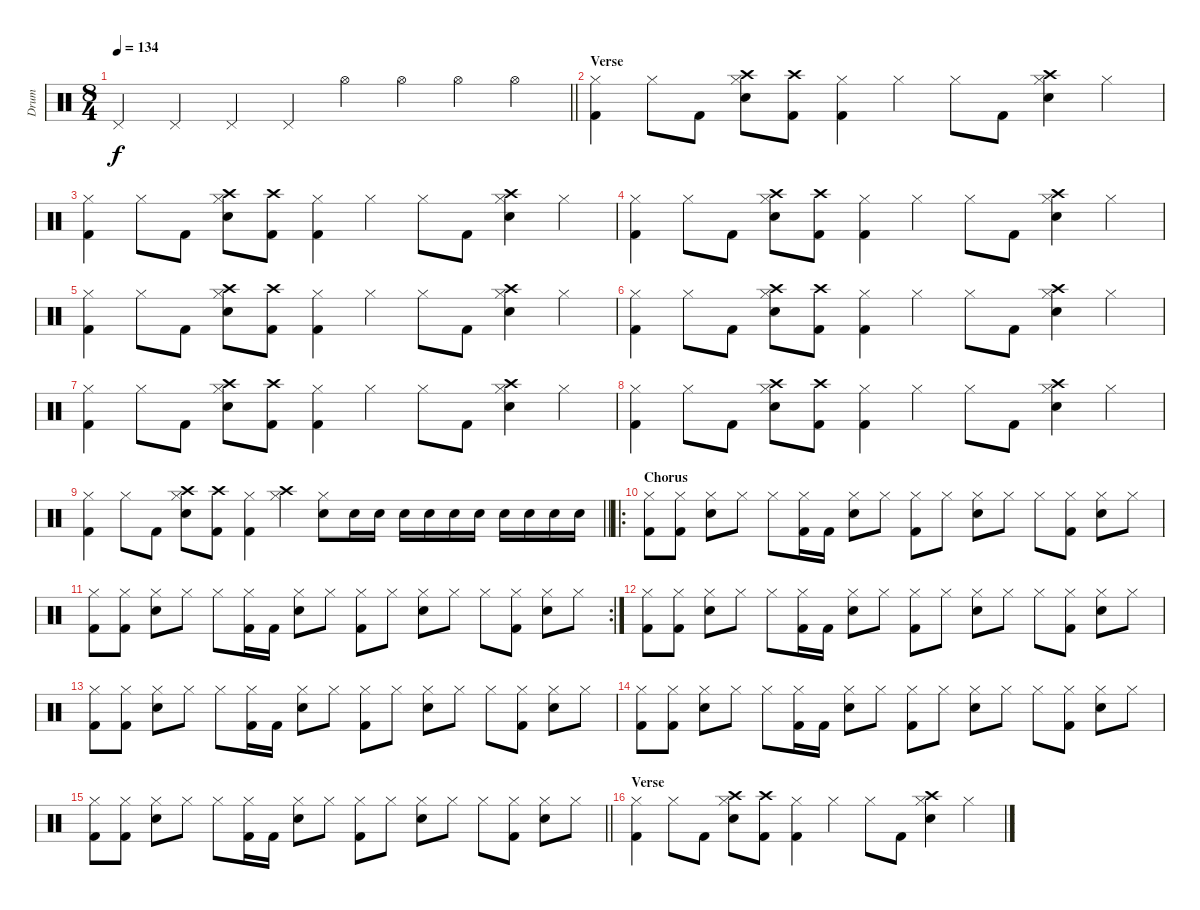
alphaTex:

\track ("Drum" "Drum") {instrument percussion}
\staff {score}
\articulation defaults
\ts (8 4)
\tempo 134
\clef neutral
\barLineRight lightlight
\ks c "Pedal Hi-Hat (hit)".4{dy f} "Pedal Hi-Hat (hit)".4 "Pedal Hi-Hat (hit)".4 "Pedal Hi-Hat (hit)".4 "Hi-Hat (open)".4 "Hi-Hat (open)".4 "Hi-Hat (open)".4 "Hi-Hat (open)".4
|
\section ("" "Verse")
("Hi-Hat (closed)" "Kick (hit) 2").4 "Hi-Hat (closed)".8 "Kick (hit) 2".8 ("Crash high (hit)" "Hi-Hat (closed)" "Snare (hit) 2").8 ("Crash high (hit)" "Kick (hit) 2").8 ("Hi-Hat (closed)" "Kick (hit) 2").4 "Hi-Hat (closed)".4 "Hi-Hat (closed)".8 "Kick (hit) 2".8 ("Crash high (hit)" "Hi-Hat (closed)" "Snare (hit) 2").4 "Hi-Hat (closed)".4 |
("Hi-Hat (closed)" "Kick (hit) 2").4 "Hi-Hat (closed)".8 "Kick (hit) 2".8 ("Crash high (hit)" "Hi-Hat (closed)" "Snare (hit) 2").8 ("Crash high (hit)" "Kick (hit) 2").8 ("Hi-Hat (closed)" "Kick (hit) 2").4 "Hi-Hat (closed)".4 "Hi-Hat (closed)".8 "Kick (hit) 2".8 ("Crash high (hit)" "Hi-Hat (closed)" "Snare (hit) 2").4 "Hi-Hat (closed)".4 |
("Hi-Hat (closed)" "Kick (hit) 2").4 "Hi-Hat (closed)".8 "Kick (hit) 2".8 ("Crash high (hit)" "Hi-Hat (closed)" "Snare (hit) 2").8 ("Crash high (hit)" "Kick (hit) 2").8 ("Hi-Hat (closed)" "Kick (hit) 2").4 "Hi-Hat (closed)".4 "Hi-Hat (closed)".8 "Kick (hit) 2".8 ("Crash high (hit)" "Hi-Hat (closed)" "Snare (hit) 2").4 "Hi-Hat (closed)".4 |
("Hi-Hat (closed)" "Kick (hit) 2").4 "Hi-Hat (closed)".8 "Kick (hit) 2".8 ("Crash high (hit)" "Hi-Hat (closed)" "Snare (hit) 2").8 ("Crash high (hit)" "Kick (hit) 2").8 ("Hi-Hat (closed)" "Kick (hit) 2").4 "Hi-Hat (closed)".4 "Hi-Hat (closed)".8 "Kick (hit) 2".8 ("Crash high (hit)" "Hi-Hat (closed)" "Snare (hit) 2").4 "Hi-Hat (closed)".4 |
("Hi-Hat (closed)" "Kick (hit) 2").4 "Hi-Hat (closed)".8 "Kick (hit) 2".8 ("Crash high (hit)" "Hi-Hat (closed)" "Snare (hit) 2").8 ("Crash high (hit)" "Kick (hit) 2").8 ("Hi-Hat (closed)" "Kick (hit) 2").4 "Hi-Hat (closed)".4 "Hi-Hat (closed)".8 "Kick (hit) 2".8 ("Crash high (hit)" "Hi-Hat (closed)" "Snare (hit) 2").4 "Hi-Hat (closed)".4 |
("Hi-Hat (closed)" "Kick (hit) 2").4 "Hi-Hat (closed)".8 "Kick (hit) 2".8 ("Crash high (hit)" "Hi-Hat (closed)" "Snare (hit) 2").8 ("Crash high (hit)" "Kick (hit) 2").8 ("Hi-Hat (closed)" "Kick (hit) 2").4 "Hi-Hat (closed)".4 "Hi-Hat (closed)".8 "Kick (hit) 2".8 ("Crash high (hit)" "Hi-Hat (closed)" "Snare (hit) 2").4 "Hi-Hat (closed)".4 |
("Hi-Hat (closed)" "Kick (hit) 2").4 "Hi-Hat (closed)".8 "Kick (hit) 2".8 ("Crash high (hit)" "Hi-Hat (closed)" "Snare (hit) 2").8 ("Crash high (hit)" "Kick (hit) 2").8 ("Hi-Hat (closed)" "Kick (hit) 2").4 "Hi-Hat (closed)".4 "Hi-Hat (closed)".8 "Kick (hit) 2".8 ("Crash high (hit)" "Hi-Hat (closed)" "Snare (hit) 2").4 "Hi-Hat (closed)".4 |
\barLineRight lightlight
("Hi-Hat (closed)" "Kick (hit) 2").4 "Hi-Hat (closed)".8 "Kick (hit) 2".8 ("Crash high (hit)" "Hi-Hat (closed)" "Snare (hit) 2").8 ("Crash high (hit)" "Kick (hit) 2").8 ("Hi-Hat (closed)" "Kick (hit) 2").4 ("Crash high (hit)" "Hi-Hat (closed)").4 ("Hi-Hat (closed)" "Snare (hit) 2").8 "Electric Snare (hit)".16 "Electric Snare (hit)".16 "Electric Snare (hit)".16 "Electric Snare (hit)".16 "Electric Snare (hit)".16 "Electric Snare (hit)".16 "Electric Snare (hit)".16 "Electric Snare (hit)".16 "Electric Snare (hit)".16 "Electric Snare (hit)".16 |
\ro
\section ("" "Chorus")
("Hi-Hat (closed)" "Kick (hit) 2").8 ("Hi-Hat (closed)" "Kick (hit) 2").8 ("Hi-Hat (closed)" "Snare (hit) 2").8 "Hi-Hat (closed)".8 "Hi-Hat (closed)".8 ("Hi-Hat (closed)" "Kick (hit) 2").16 "Kick (hit) 2".16 ("Hi-Hat (closed)" "Snare (hit) 2").8 "Hi-Hat (closed)".8 ("Hi-Hat (closed)" "Kick (hit) 2").8 "Hi-Hat (closed)".8 ("Hi-Hat (closed)" "Snare (hit) 2").8 "Hi-Hat (closed)".8 "Hi-Hat (closed)".8 ("Hi-Hat (closed)" "Kick (hit) 2").8 ("Hi-Hat (closed)" "Snare (hit) 2").8 "Hi-Hat (closed)".8 |
\rc 2
("Hi-Hat (closed)" "Kick (hit) 2").8 ("Hi-Hat (closed)" "Kick (hit) 2").8 ("Hi-Hat (closed)" "Snare (hit) 2").8 "Hi-Hat (closed)".8 "Hi-Hat (closed)".8 ("Hi-Hat (closed)" "Kick (hit) 2").16 "Kick (hit) 2".16 ("Hi-Hat (closed)" "Snare (hit) 2").8 "Hi-Hat (closed)".8 ("Hi-Hat (closed)" "Kick (hit) 2").8 "Hi-Hat (closed)".8 ("Hi-Hat (closed)" "Snare (hit) 2").8 "Hi-Hat (closed)".8 "Hi-Hat (closed)".8 ("Hi-Hat (closed)" "Kick (hit) 2").8 ("Hi-Hat (closed)" "Snare (hit) 2").8 "Hi-Hat (closed)".8 |
("Hi-Hat (closed)" "Kick (hit) 2").8 ("Hi-Hat (closed)" "Kick (hit) 2").8 ("Hi-Hat (closed)" "Snare (hit) 2").8 "Hi-Hat (closed)".8 "Hi-Hat (closed)".8 ("Hi-Hat (closed)" "Kick (hit) 2").16 "Kick (hit) 2".16 ("Hi-Hat (closed)" "Snare (hit) 2").8 "Hi-Hat (closed)".8 ("Hi-Hat (closed)" "Kick (hit) 2").8 "Hi-Hat (closed)".8 ("Hi-Hat (closed)" "Snare (hit) 2").8 "Hi-Hat (closed)".8 "Hi-Hat (closed)".8 ("Hi-Hat (closed)" "Kick (hit) 2").8 ("Hi-Hat (closed)" "Snare (hit) 2").8 "Hi-Hat (closed)".8 |
("Hi-Hat (closed)" "Kick (hit) 2").8 ("Hi-Hat (closed)" "Kick (hit) 2").8 ("Hi-Hat (closed)" "Snare (hit) 2").8 "Hi-Hat (closed)".8 "Hi-Hat (closed)".8 ("Hi-Hat (closed)" "Kick (hit) 2").16 "Kick (hit) 2".16 ("Hi-Hat (closed)" "Snare (hit) 2").8 "Hi-Hat (closed)".8 ("Hi-Hat (closed)" "Kick (hit) 2").8 "Hi-Hat (closed)".8 ("Hi-Hat (closed)" "Snare (hit) 2").8 "Hi-Hat (closed)".8 "Hi-Hat (closed)".8 ("Hi-Hat (closed)" "Kick (hit) 2").8 ("Hi-Hat (closed)" "Snare (hit) 2").8 "Hi-Hat (closed)".8 |
("Hi-Hat (closed)" "Kick (hit) 2").8 ("Hi-Hat (closed)" "Kick (hit) 2").8 ("Hi-Hat (closed)" "Snare (hit) 2").8 "Hi-Hat (closed)".8 "Hi-Hat (closed)".8 ("Hi-Hat (closed)" "Kick (hit) 2").16 "Kick (hit) 2".16 ("Hi-Hat (closed)" "Snare (hit) 2").8 "Hi-Hat (closed)".8 ("Hi-Hat (closed)" "Kick (hit) 2").8 "Hi-Hat (closed)".8 ("Hi-Hat (closed)" "Snare (hit) 2").8 "Hi-Hat (closed)".8 "Hi-Hat (closed)".8 ("Hi-Hat (closed)" "Kick (hit) 2").8 ("Hi-Hat (closed)" "Snare (hit) 2").8 "Hi-Hat (closed)".8 |
\barLineRight lightlight
("Hi-Hat (closed)" "Kick (hit) 2").8 ("Hi-Hat (closed)" "Kick (hit) 2").8 ("Hi-Hat (closed)" "Snare (hit) 2").8 "Hi-Hat (closed)".8 "Hi-Hat (closed)".8 ("Hi-Hat (closed)" "Kick (hit) 2").16 "Kick (hit) 2".16 ("Hi-Hat (closed)" "Snare (hit) 2").8 "Hi-Hat (closed)".8 ("Hi-Hat (closed)" "Kick (hit) 2").8 "Hi-Hat (closed)".8 ("Hi-Hat (closed)" "Snare (hit) 2").8 "Hi-Hat (closed)".8 "Hi-Hat (closed)".8 ("Hi-Hat (closed)" "Kick (hit) 2").8 ("Hi-Hat (closed)" "Snare (hit) 2").8 "Hi-Hat (closed)".8 |
\section ("" "Verse")
("Hi-Hat (closed)" "Kick (hit) 2").4 "Hi-Hat (closed)".8 "Kick (hit) 2".8 ("Crash high (hit)" "Hi-Hat (closed)" "Snare (hit) 2").8 ("Crash high (hit)" "Kick (hit) 2").8 ("Hi-Hat (closed)" "Kick (hit) 2").4 "Hi-Hat (closed)".4 "Hi-Hat (closed)".8 "Kick (hit) 2".8 ("Crash high (hit)" "Hi-Hat (closed)" "Snare (hit) 2").4 "Hi-Hat (closed)".4
